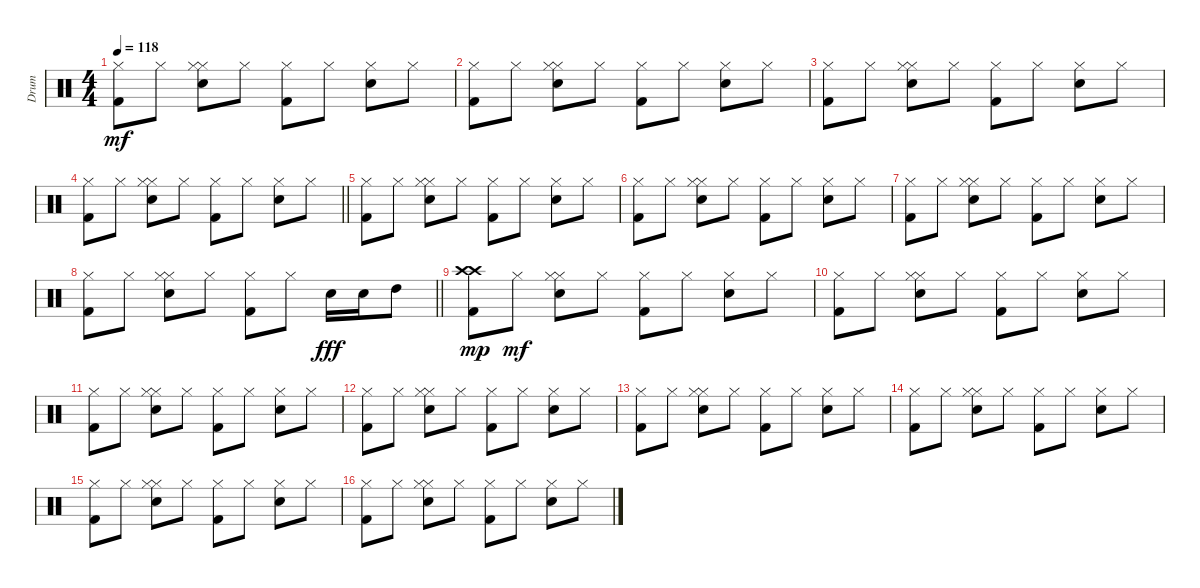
\track ("Drum " "Drum ") {instrument percussion}
\staff {score}
\articulation defaults
\ts (4 4)
\tempo 118
\clef neutral
\ks c
("Hi-Hat (closed)" "Kick (hit) 2").8{dy mf} "Hi-Hat (closed)".8 ("Hi-Hat (closed)" "Hi-Hat (closed)" "Snare (hit) 2").8 "Hi-Hat (closed)".8 ("Hi-Hat (closed)" "Kick (hit) 2").8 "Hi-Hat (closed)".8 ("Hi-Hat (closed)" "Snare (hit) 2").8 "Hi-Hat (closed)".8 |
("Hi-Hat (closed)" "Kick (hit) 2").8 "Hi-Hat (closed)".8 ("Hi-Hat (closed)" "Hi-Hat (closed)" "Snare (hit) 2").8 "Hi-Hat (closed)".8 ("Hi-Hat (closed)" "Kick (hit) 2").8 "Hi-Hat (closed)".8 ("Hi-Hat (closed)" "Snare (hit) 2").8 "Hi-Hat (closed)".8 |
("Hi-Hat (closed)" "Kick (hit) 2").8 "Hi-Hat (closed)".8 ("Hi-Hat (closed)" "Hi-Hat (closed)" "Snare (hit) 2").8 "Hi-Hat (closed)".8 ("Hi-Hat (closed)" "Kick (hit) 2").8 "Hi-Hat (closed)".8 ("Hi-Hat (closed)" "Snare (hit) 2").8 "Hi-Hat (closed)".8 |
\barLineRight lightlight
("Hi-Hat (closed)" "Kick (hit) 2").8 "Hi-Hat (closed)".8 ("Hi-Hat (closed)" "Hi-Hat (closed)" "Snare (hit) 2").8 "Hi-Hat (closed)".8 ("Hi-Hat (closed)" "Kick (hit) 2").8 "Hi-Hat (closed)".8 ("Hi-Hat (closed)" "Snare (hit) 2").8 "Hi-Hat (closed)".8 |
("Hi-Hat (closed)" "Kick (hit) 2").8 "Hi-Hat (closed)".8 ("Hi-Hat (closed)" "Hi-Hat (closed)" "Snare (hit) 2").8 "Hi-Hat (closed)".8 ("Hi-Hat (closed)" "Kick (hit) 2").8 "Hi-Hat (closed)".8 ("Hi-Hat (closed)" "Snare (hit) 2").8 "Hi-Hat (closed)".8 |
("Hi-Hat (closed)" "Kick (hit) 2").8 "Hi-Hat (closed)".8 ("Hi-Hat (closed)" "Hi-Hat (closed)" "Snare (hit) 2").8 "Hi-Hat (closed)".8 ("Hi-Hat (closed)" "Kick (hit) 2").8 "Hi-Hat (closed)".8 ("Hi-Hat (closed)" "Snare (hit) 2").8 "Hi-Hat (closed)".8 |
("Hi-Hat (closed)" "Kick (hit) 2").8 "Hi-Hat (closed)".8 ("Hi-Hat (closed)" "Hi-Hat (closed)" "Snare (hit) 2").8 "Hi-Hat (closed)".8 ("Hi-Hat (closed)" "Kick (hit) 2").8 "Hi-Hat (closed)".8 ("Hi-Hat (closed)" "Snare (hit) 2").8 "Hi-Hat (closed)".8 |
\barLineRight lightlight
("Hi-Hat (closed)" "Kick (hit) 2").8 "Hi-Hat (closed)".8 ("Hi-Hat (closed)" "Hi-Hat (closed)" "Snare (hit) 2").8 "Hi-Hat (closed)".8 ("Hi-Hat (closed)" "Kick (hit) 2").8 "Hi-Hat (closed)".8 "Snare (hit) 2".16{dy fff} "Snare (hit) 2".16 "High Tom (hit)".8 |
("Crash high (hit)" "Kick (hit) 2" "Crash high (hit)").8{dy mp} "Hi-Hat (closed)".8{dy mf} ("Hi-Hat (closed)" "Hi-Hat (closed)" "Snare (hit) 2").8 "Hi-Hat (closed)".8 ("Hi-Hat (closed)" "Kick (hit) 2").8 "Hi-Hat (closed)".8 ("Hi-Hat (closed)" "Snare (hit) 2").8 "Hi-Hat (closed)".8 |
("Hi-Hat (closed)" "Kick (hit) 2").8 "Hi-Hat (closed)".8 ("Hi-Hat (closed)" "Hi-Hat (closed)" "Snare (hit) 2").8 "Hi-Hat (closed)".8 ("Hi-Hat (closed)" "Kick (hit) 2").8 "Hi-Hat (closed)".8 ("Hi-Hat (closed)" "Snare (hit) 2").8 "Hi-Hat (closed)".8 |
("Hi-Hat (closed)" "Kick (hit) 2").8 "Hi-Hat (closed)".8 ("Hi-Hat (closed)" "Hi-Hat (closed)" "Snare (hit) 2").8 "Hi-Hat (closed)".8 ("Hi-Hat (closed)" "Kick (hit) 2").8 "Hi-Hat (closed)".8 ("Hi-Hat (closed)" "Snare (hit) 2").8 "Hi-Hat (closed)".8 |
("Hi-Hat (closed)" "Kick (hit) 2").8 "Hi-Hat (closed)".8 ("Hi-Hat (closed)" "Hi-Hat (closed)" "Snare (hit) 2").8 "Hi-Hat (closed)".8 ("Hi-Hat (closed)" "Kick (hit) 2").8 "Hi-Hat (closed)".8 ("Hi-Hat (closed)" "Snare (hit) 2").8 "Hi-Hat (closed)".8 |
("Hi-Hat (closed)" "Kick (hit) 2").8 "Hi-Hat (closed)".8 ("Hi-Hat (closed)" "Hi-Hat (closed)" "Snare (hit) 2").8 "Hi-Hat (closed)".8 ("Hi-Hat (closed)" "Kick (hit) 2").8 "Hi-Hat (closed)".8 ("Hi-Hat (closed)" "Snare (hit) 2").8 "Hi-Hat (closed)".8 |
("Hi-Hat (closed)" "Kick (hit) 2").8 "Hi-Hat (closed)".8 ("Hi-Hat (closed)" "Hi-Hat (closed)" "Snare (hit) 2").8 "Hi-Hat (closed)".8 ("Hi-Hat (closed)" "Kick (hit) 2").8 "Hi-Hat (closed)".8 ("Hi-Hat (closed)" "Snare (hit) 2").8 "Hi-Hat (closed)".8 |
("Hi-Hat (closed)" "Kick (hit) 2").8 "Hi-Hat (closed)".8 ("Hi-Hat (closed)" "Hi-Hat (closed)" "Snare (hit) 2").8 "Hi-Hat (closed)".8 ("Hi-Hat (closed)" "Kick (hit) 2").8 "Hi-Hat (closed)".8 ("Hi-Hat (closed)" "Snare (hit) 2").8 "Hi-Hat (closed)".8 |
("Hi-Hat (closed)" "Kick (hit) 2").8 "Hi-Hat (closed)".8 ("Hi-Hat (closed)" "Hi-Hat (closed)" "Snare (hit) 2").8 "Hi-Hat (closed)".8 ("Hi-Hat (closed)" "Kick (hit) 2").8 "Hi-Hat (closed)".8 ("Hi-Hat (closed)" "Snare (hit) 2").8 "Hi-Hat (closed)".8
